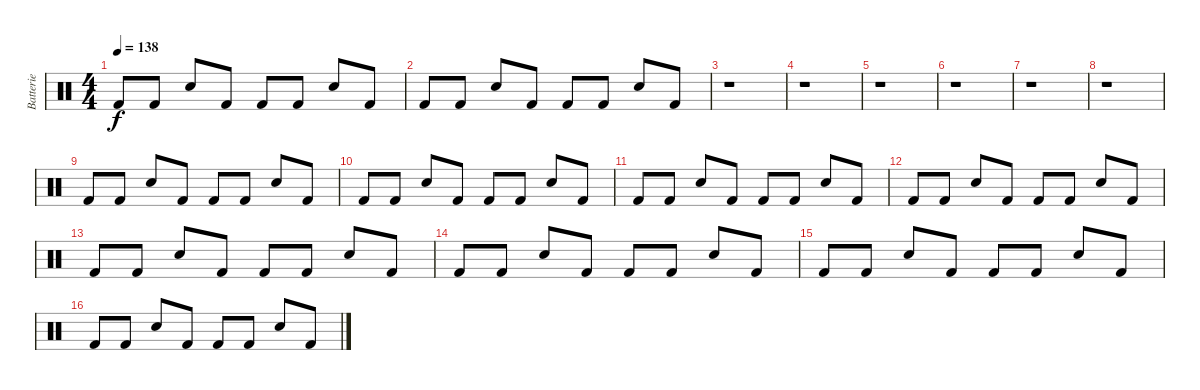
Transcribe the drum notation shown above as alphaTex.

\track ("Batterie" "Batterie") {instrument percussion}
\staff {score}
\articulation defaults
\ts (4 4)
\tempo 138
\clef neutral
\ks c "Kick (hit) 2".8{dy f} "Kick (hit) 2".8 "Snare (hit) 2".8 "Kick (hit) 2".8 "Kick (hit) 2".8 "Kick (hit) 2".8 "Snare (hit) 2".8 "Kick (hit) 2".8
|
"Kick (hit) 2".8 "Kick (hit) 2".8 "Snare (hit) 2".8 "Kick (hit) 2".8 "Kick (hit) 2".8 "Kick (hit) 2".8 "Snare (hit) 2".8 "Kick (hit) 2".8 |
r.1 |
r.1 |
r.1 |
r.1 |
r.1 |
r.1 |
"Kick (hit) 2".8 "Kick (hit) 2".8 "Snare (hit) 2".8 "Kick (hit) 2".8 "Kick (hit) 2".8 "Kick (hit) 2".8 "Snare (hit) 2".8 "Kick (hit) 2".8 |
"Kick (hit) 2".8 "Kick (hit) 2".8 "Snare (hit) 2".8 "Kick (hit) 2".8 "Kick (hit) 2".8 "Kick (hit) 2".8 "Snare (hit) 2".8 "Kick (hit) 2".8 |
"Kick (hit) 2".8 "Kick (hit) 2".8 "Snare (hit) 2".8 "Kick (hit) 2".8 "Kick (hit) 2".8 "Kick (hit) 2".8 "Snare (hit) 2".8 "Kick (hit) 2".8 |
"Kick (hit) 2".8 "Kick (hit) 2".8 "Snare (hit) 2".8 "Kick (hit) 2".8 "Kick (hit) 2".8 "Kick (hit) 2".8 "Snare (hit) 2".8 "Kick (hit) 2".8 |
"Kick (hit) 2".8 "Kick (hit) 2".8 "Snare (hit) 2".8 "Kick (hit) 2".8 "Kick (hit) 2".8 "Kick (hit) 2".8 "Snare (hit) 2".8 "Kick (hit) 2".8 |
"Kick (hit) 2".8 "Kick (hit) 2".8 "Snare (hit) 2".8 "Kick (hit) 2".8 "Kick (hit) 2".8 "Kick (hit) 2".8 "Snare (hit) 2".8 "Kick (hit) 2".8 |
"Kick (hit) 2".8 "Kick (hit) 2".8 "Snare (hit) 2".8 "Kick (hit) 2".8 "Kick (hit) 2".8 "Kick (hit) 2".8 "Snare (hit) 2".8 "Kick (hit) 2".8 |
"Kick (hit) 2".8 "Kick (hit) 2".8 "Snare (hit) 2".8 "Kick (hit) 2".8 "Kick (hit) 2".8 "Kick (hit) 2".8 "Snare (hit) 2".8 "Kick (hit) 2".8
